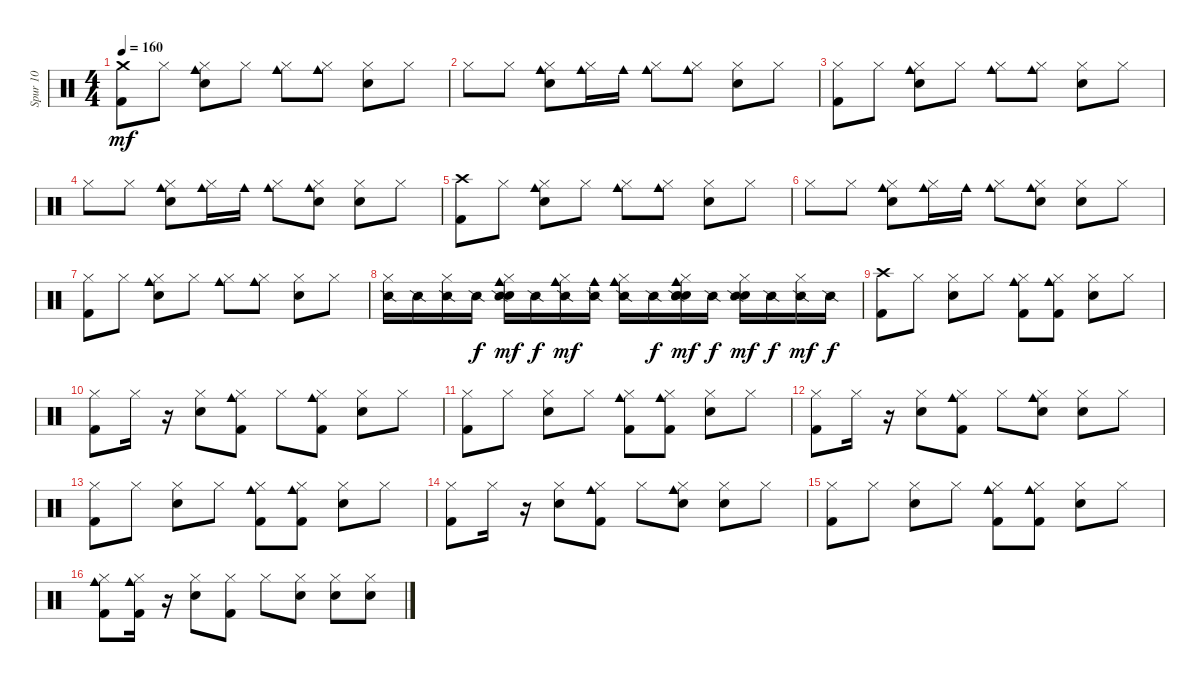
\track ("Spur 10" "Spur 10") {instrument percussion}
\staff {score}
\articulation defaults
\ts (4 4)
\tempo 160
\clef neutral
\ks c
("Crash medium (hit)" "Kick (hit) 2").8{dy mf} "Hi-Hat (closed)".8 ("Cowbell medium (hit)" "Snare (hit) 2" "Hi-Hat (closed)").8 "Hi-Hat (closed)".8 ("Cowbell medium (hit)" "Hi-Hat (closed)").8 ("Cowbell medium (hit)" "Hi-Hat (closed)").8 ("Snare (hit) 2" "Hi-Hat (closed)").8 "Hi-Hat (closed)".8 |
"Hi-Hat (closed)".8 "Hi-Hat (closed)".8 ("Cowbell medium (hit)" "Snare (hit) 2" "Hi-Hat (closed)").8 ("Cowbell medium (hit)" "Hi-Hat (closed)").16 "Cowbell medium (hit)".16 ("Cowbell medium (hit)" "Hi-Hat (closed)").8 ("Cowbell medium (hit)" "Hi-Hat (closed)").8 ("Snare (hit) 2" "Hi-Hat (closed)").8 "Hi-Hat (closed)".8 |
("Hi-Hat (closed)" "Kick (hit) 2").8 "Hi-Hat (closed)".8 ("Cowbell medium (hit)" "Snare (hit) 2" "Hi-Hat (closed)").8 "Hi-Hat (closed)".8 ("Cowbell medium (hit)" "Hi-Hat (closed)").8 ("Cowbell medium (hit)" "Hi-Hat (closed)").8 ("Snare (hit) 2" "Hi-Hat (closed)").8 "Hi-Hat (closed)".8 |
"Hi-Hat (closed)".8 "Hi-Hat (closed)".8 ("Cowbell medium (hit)" "Snare (hit) 2" "Hi-Hat (closed)").8 ("Cowbell medium (hit)" "Hi-Hat (closed)").16 "Cowbell medium (hit)".16 ("Cowbell medium (hit)" "Hi-Hat (closed)").8 ("Hand Clap (hit)" "Cowbell medium (hit)" "Hi-Hat (closed)").8 ("Snare (hit) 2" "Hi-Hat (closed)").8 "Hi-Hat (closed)".8 |
("Crash high (hit)" "Kick (hit) 2").8 "Hi-Hat (closed)".8 ("Cowbell medium (hit)" "Snare (hit) 2" "Hi-Hat (closed)").8 "Hi-Hat (closed)".8 ("Cowbell medium (hit)" "Hi-Hat (closed)").8 ("Cowbell medium (hit)" "Hi-Hat (closed)").8 ("Snare (hit) 2" "Hi-Hat (closed)").8 "Hi-Hat (closed)".8 |
"Hi-Hat (closed)".8 "Hi-Hat (closed)".8 ("Cowbell medium (hit)" "Snare (hit) 2" "Hi-Hat (closed)").8 ("Cowbell medium (hit)" "Hi-Hat (closed)").16 "Cowbell medium (hit)".16 ("Cowbell medium (hit)" "Hi-Hat (closed)").8 ("Cowbell medium (hit)" "Hi-Hat (closed)" "Hand Clap (hit)").8 ("Hi-Hat (closed)" "Snare (hit) 2").8 "Hi-Hat (closed)".8 |
("Hi-Hat (closed)" "Kick (hit) 2").8 "Hi-Hat (closed)".8 ("Cowbell medium (hit)" "Snare (hit) 2" "Hi-Hat (closed)").8 "Hi-Hat (closed)".8 ("Cowbell medium (hit)" "Hi-Hat (closed)").8 ("Cowbell medium (hit)" "Hi-Hat (closed)").8 ("Snare (hit) 2" "Hi-Hat (closed)").8 "Hi-Hat (closed)".8 |
("Hi-Hat (closed)" "Snare (side stick) 2").16 "Snare (side stick) 2".16 ("Hi-Hat (closed)" "Snare (side stick) 2").16 "Snare (side stick) 2".16{dy f} ("Cowbell medium (hit)" "Snare (hit) 2" "Hi-Hat (closed)" "Snare (side stick) 2").16{dy mf} "Snare (side stick) 2".16{dy f} ("Cowbell medium (hit)" "Hi-Hat (closed)" "Snare (side stick) 2").16{dy mf} ("Cowbell medium (hit)" "Snare (side stick) 2").16 ("Cowbell medium (hit)" "Hi-Hat (closed)" "Snare (side stick) 2").16 "Snare (side stick) 2".16{dy f} ("Cowbell medium (hit)" "Hi-Hat (closed)" "Hand Clap (hit)" "Snare (side stick) 2" "Hand Clap (hit)").16{dy mf} "Snare (side stick) 2".16{dy f} ("Hi-Hat (closed)" "Snare (hit) 2" "Snare (side stick) 2").16{dy mf} "Snare (side stick) 2".16{dy f} ("Hi-Hat (closed)" "Snare (side stick) 2").16{dy mf} "Snare (side stick) 2".16{dy f} |
("Crash high (hit)" "Kick (hit) 2").8 "Hi-Hat (closed)".8 ("Hi-Hat (closed)" "Snare (hit) 2").8 "Hi-Hat (closed)".8 ("Hi-Hat (closed)" "Cowbell medium (hit)" "Kick (hit) 2").8 ("Hi-Hat (closed)" "Cowbell medium (hit)" "Kick (hit) 2").8 ("Hi-Hat (closed)" "Snare (hit) 2").8 "Hi-Hat (closed)".8 |
("Hi-Hat (closed)" "Kick (hit) 2").8 "Hi-Hat (closed)".16 r.16 ("Hi-Hat (closed)" "Snare (hit) 2").8 ("Hi-Hat (closed)" "Kick (hit) 2" "Cowbell medium (hit)").8 "Hi-Hat (closed)".8 ("Hi-Hat (closed)" "Kick (hit) 2" "Cowbell medium (hit)").8 ("Hi-Hat (closed)" "Snare (hit) 2").8 "Hi-Hat (closed)".8 |
("Hi-Hat (closed)" "Kick (hit) 2").8 "Hi-Hat (closed)".8 ("Hi-Hat (closed)" "Snare (hit) 2").8 "Hi-Hat (closed)".8 ("Hi-Hat (closed)" "Cowbell medium (hit)" "Kick (hit) 2").8 ("Hi-Hat (closed)" "Cowbell medium (hit)" "Kick (hit) 2").8 ("Hi-Hat (closed)" "Snare (hit) 2").8 "Hi-Hat (closed)".8 |
("Hi-Hat (closed)" "Kick (hit) 2").8 "Hi-Hat (closed)".16 r.16 ("Hi-Hat (closed)" "Snare (hit) 2").8 ("Hi-Hat (closed)" "Kick (hit) 2" "Cowbell medium (hit)").8 "Hi-Hat (closed)".8 ("Hi-Hat (closed)" "Hand Clap (hit)" "Cowbell medium (hit)").8 ("Hi-Hat (closed)" "Snare (hit) 2").8 "Hi-Hat (closed)".8 |
("Hi-Hat (closed)" "Kick (hit) 2").8 "Hi-Hat (closed)".8 ("Hi-Hat (closed)" "Snare (hit) 2").8 "Hi-Hat (closed)".8 ("Hi-Hat (closed)" "Cowbell medium (hit)" "Kick (hit) 2").8 ("Hi-Hat (closed)" "Cowbell medium (hit)" "Kick (hit) 2").8 ("Hi-Hat (closed)" "Snare (hit) 2").8 "Hi-Hat (closed)".8 |
("Hi-Hat (closed)" "Kick (hit) 2").8 "Hi-Hat (closed)".16 r.16 ("Hi-Hat (closed)" "Snare (hit) 2").8 ("Hi-Hat (closed)" "Kick (hit) 2" "Cowbell medium (hit)").8 "Hi-Hat (closed)".8 ("Hi-Hat (closed)" "Hand Clap (hit)" "Cowbell medium (hit)").8 ("Hi-Hat (closed)" "Snare (hit) 2").8 "Hi-Hat (closed)".8 |
("Hi-Hat (closed)" "Kick (hit) 2").8 "Hi-Hat (closed)".8 ("Hi-Hat (closed)" "Snare (hit) 2").8 "Hi-Hat (closed)".8 ("Hi-Hat (closed)" "Cowbell medium (hit)" "Kick (hit) 2").8 ("Hi-Hat (closed)" "Cowbell medium (hit)" "Kick (hit) 2").8 ("Hi-Hat (closed)" "Snare (hit) 2").8 "Hi-Hat (closed)".8 |
("Cowbell medium (hit)" "Hi-Hat (closed)" "Kick (hit) 2").8 ("Cowbell medium (hit)" "Kick (hit) 2" "Hi-Hat (closed)").16 r.16 ("Hi-Hat (closed)" "Snare (hit) 2").8 ("Hi-Hat (closed)" "Kick (hit) 2").8 "Hi-Hat (closed)".8 ("Hi-Hat (closed)" "Snare (hit) 2").8 ("Hi-Hat (closed)" "Snare (hit) 2").8 ("Snare (hit) 2" "Hi-Hat (closed)").8
